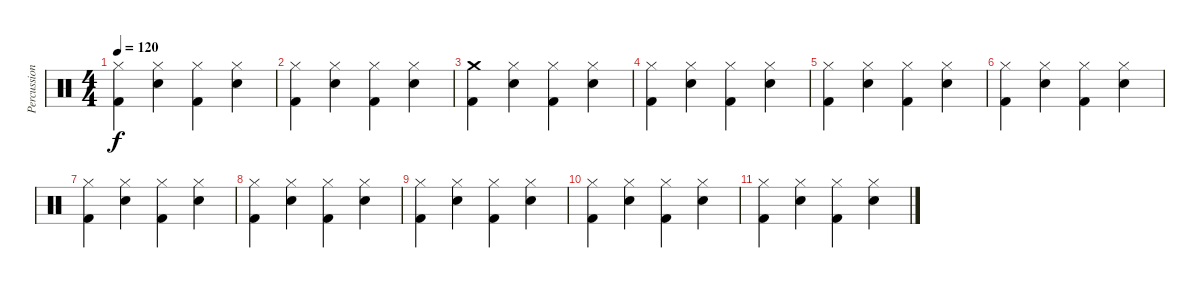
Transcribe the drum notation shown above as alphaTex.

\track ("Percussion" "Percussion") {instrument percussion}
\staff {score}
\articulation defaults
\ts (4 4)
\tempo 120
\clef neutral
\ks c
("Hi-Hat (closed)" "Kick (hit) 2").4{dy f} ("Electric Snare (hit)" "Hi-Hat (closed)").4 ("Hi-Hat (closed)" "Kick (hit) 2").4 ("Electric Snare (hit)" "Hi-Hat (closed)").4 |
("Hi-Hat (closed)" "Kick (hit) 2").4 ("Electric Snare (hit)" "Hi-Hat (closed)").4 ("Hi-Hat (closed)" "Kick (hit) 2").4 ("Electric Snare (hit)" "Hi-Hat (closed)").4 |
("Kick (hit) 2" "Crash medium (hit)").4 ("Electric Snare (hit)" "Hi-Hat (closed)").4 ("Hi-Hat (closed)" "Kick (hit) 2").4 ("Electric Snare (hit)" "Hi-Hat (closed)").4 |
("Hi-Hat (closed)" "Kick (hit) 2").4 ("Electric Snare (hit)" "Hi-Hat (closed)").4 ("Hi-Hat (closed)" "Kick (hit) 2").4 ("Electric Snare (hit)" "Hi-Hat (closed)").4 |
("Hi-Hat (closed)" "Kick (hit) 2").4 ("Electric Snare (hit)" "Hi-Hat (closed)").4 ("Hi-Hat (closed)" "Kick (hit) 2").4 ("Electric Snare (hit)" "Hi-Hat (closed)").4 |
("Hi-Hat (closed)" "Kick (hit) 2").4 ("Electric Snare (hit)" "Hi-Hat (closed)").4 ("Hi-Hat (closed)" "Kick (hit) 2").4 ("Electric Snare (hit)" "Hi-Hat (closed)").4 |
("Hi-Hat (closed)" "Kick (hit) 2").4 ("Electric Snare (hit)" "Hi-Hat (closed)").4 ("Hi-Hat (closed)" "Kick (hit) 2").4 ("Electric Snare (hit)" "Hi-Hat (closed)").4 |
("Hi-Hat (closed)" "Kick (hit) 2").4 ("Electric Snare (hit)" "Hi-Hat (closed)").4 ("Hi-Hat (closed)" "Kick (hit) 2").4 ("Electric Snare (hit)" "Hi-Hat (closed)").4 |
("Hi-Hat (closed)" "Kick (hit) 2").4 ("Electric Snare (hit)" "Hi-Hat (closed)").4 ("Hi-Hat (closed)" "Kick (hit) 2").4 ("Electric Snare (hit)" "Hi-Hat (closed)").4 |
("Hi-Hat (closed)" "Kick (hit) 2").4 ("Electric Snare (hit)" "Hi-Hat (closed)").4 ("Hi-Hat (closed)" "Kick (hit) 2").4 ("Electric Snare (hit)" "Hi-Hat (closed)").4 |
("Hi-Hat (closed)" "Kick (hit) 2").4 ("Electric Snare (hit)" "Hi-Hat (closed)").4 ("Hi-Hat (closed)" "Kick (hit) 2").4 ("Electric Snare (hit)" "Hi-Hat (closed)").4
